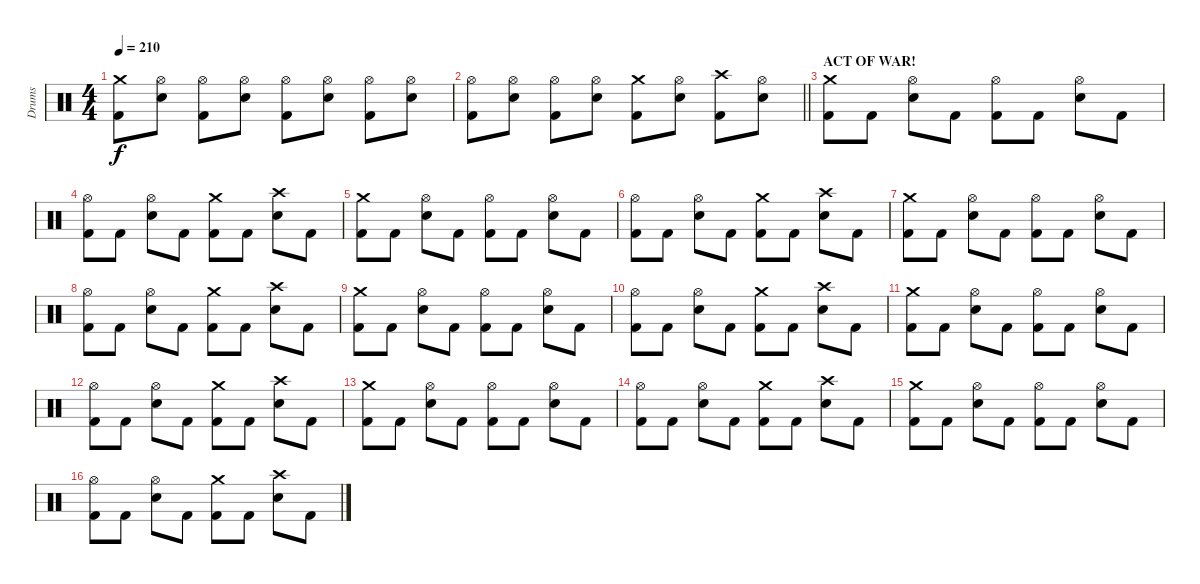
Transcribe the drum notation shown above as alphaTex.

\track ("Drums" "Drums") {instrument percussion}
\staff {score}
\articulation defaults
\ts (4 4)
\tempo 210
\clef neutral
\ks c
("Crash medium (hit)" "Kick (hit) 2").8{dy f} ("Hi-Hat (open)" "Electric Snare (hit)").8 ("Hi-Hat (open)" "Kick (hit) 2").8 ("Hi-Hat (open)" "Electric Snare (hit)").8 ("Hi-Hat (open)" "Kick (hit) 2").8 ("Hi-Hat (open)" "Electric Snare (hit)").8 ("Hi-Hat (open)" "Kick (hit) 2").8 ("Hi-Hat (open)" "Electric Snare (hit)").8 |
\barLineRight lightlight
("Hi-Hat (open)" "Kick (hit) 2").8 ("Hi-Hat (open)" "Electric Snare (hit)").8 ("Hi-Hat (open)" "Kick (hit) 2").8 ("Hi-Hat (open)" "Electric Snare (hit)").8 ("Crash medium (hit)" "Kick (hit) 2").8 ("Hi-Hat (open)" "Electric Snare (hit)").8 ("Crash high (hit)" "Kick (hit) 2").8 ("Hi-Hat (open)" "Electric Snare (hit)").8 |
\section ("" "ACT OF WAR!")
("Crash medium (hit)" "Kick (hit) 2").8 "Kick (hit) 2".8 ("Hi-Hat (open)" "Electric Snare (hit)").8 "Kick (hit) 2".8 ("Hi-Hat (open)" "Kick (hit) 2").8 "Kick (hit) 2".8 ("Hi-Hat (open)" "Electric Snare (hit)").8 "Kick (hit) 2".8 |
("Hi-Hat (open)" "Kick (hit) 2").8 "Kick (hit) 2".8 ("Hi-Hat (open)" "Electric Snare (hit)").8 "Kick (hit) 2".8 ("Crash medium (hit)" "Kick (hit) 2").8 "Kick (hit) 2".8 ("Crash high (hit)" "Electric Snare (hit)").8 "Kick (hit) 2".8 |
("Crash medium (hit)" "Kick (hit) 2").8 "Kick (hit) 2".8 ("Hi-Hat (open)" "Electric Snare (hit)").8 "Kick (hit) 2".8 ("Hi-Hat (open)" "Kick (hit) 2").8 "Kick (hit) 2".8 ("Hi-Hat (open)" "Electric Snare (hit)").8 "Kick (hit) 2".8 |
("Hi-Hat (open)" "Kick (hit) 2").8 "Kick (hit) 2".8 ("Hi-Hat (open)" "Electric Snare (hit)").8 "Kick (hit) 2".8 ("Crash medium (hit)" "Kick (hit) 2").8 "Kick (hit) 2".8 ("Crash high (hit)" "Electric Snare (hit)").8 "Kick (hit) 2".8 |
("Crash medium (hit)" "Kick (hit) 2").8 "Kick (hit) 2".8 ("Hi-Hat (open)" "Electric Snare (hit)").8 "Kick (hit) 2".8 ("Hi-Hat (open)" "Kick (hit) 2").8 "Kick (hit) 2".8 ("Hi-Hat (open)" "Electric Snare (hit)").8 "Kick (hit) 2".8 |
("Hi-Hat (open)" "Kick (hit) 2").8 "Kick (hit) 2".8 ("Hi-Hat (open)" "Electric Snare (hit)").8 "Kick (hit) 2".8 ("Crash medium (hit)" "Kick (hit) 2").8 "Kick (hit) 2".8 ("Crash high (hit)" "Electric Snare (hit)").8 "Kick (hit) 2".8 |
("Crash medium (hit)" "Kick (hit) 2").8 "Kick (hit) 2".8 ("Hi-Hat (open)" "Electric Snare (hit)").8 "Kick (hit) 2".8 ("Hi-Hat (open)" "Kick (hit) 2").8 "Kick (hit) 2".8 ("Hi-Hat (open)" "Electric Snare (hit)").8 "Kick (hit) 2".8 |
("Hi-Hat (open)" "Kick (hit) 2").8 "Kick (hit) 2".8 ("Hi-Hat (open)" "Electric Snare (hit)").8 "Kick (hit) 2".8 ("Crash medium (hit)" "Kick (hit) 2").8 "Kick (hit) 2".8 ("Crash high (hit)" "Electric Snare (hit)").8 "Kick (hit) 2".8 |
("Crash medium (hit)" "Kick (hit) 2").8 "Kick (hit) 2".8 ("Hi-Hat (open)" "Electric Snare (hit)").8 "Kick (hit) 2".8 ("Hi-Hat (open)" "Kick (hit) 2").8 "Kick (hit) 2".8 ("Hi-Hat (open)" "Electric Snare (hit)").8 "Kick (hit) 2".8 |
("Hi-Hat (open)" "Kick (hit) 2").8 "Kick (hit) 2".8 ("Hi-Hat (open)" "Electric Snare (hit)").8 "Kick (hit) 2".8 ("Crash medium (hit)" "Kick (hit) 2").8 "Kick (hit) 2".8 ("Crash high (hit)" "Electric Snare (hit)").8 "Kick (hit) 2".8 |
("Crash medium (hit)" "Kick (hit) 2").8 "Kick (hit) 2".8 ("Hi-Hat (open)" "Electric Snare (hit)").8 "Kick (hit) 2".8 ("Hi-Hat (open)" "Kick (hit) 2").8 "Kick (hit) 2".8 ("Hi-Hat (open)" "Electric Snare (hit)").8 "Kick (hit) 2".8 |
("Hi-Hat (open)" "Kick (hit) 2").8 "Kick (hit) 2".8 ("Hi-Hat (open)" "Electric Snare (hit)").8 "Kick (hit) 2".8 ("Crash medium (hit)" "Kick (hit) 2").8 "Kick (hit) 2".8 ("Crash high (hit)" "Electric Snare (hit)").8 "Kick (hit) 2".8 |
("Crash medium (hit)" "Kick (hit) 2").8 "Kick (hit) 2".8 ("Hi-Hat (open)" "Electric Snare (hit)").8 "Kick (hit) 2".8 ("Hi-Hat (open)" "Kick (hit) 2").8 "Kick (hit) 2".8 ("Hi-Hat (open)" "Electric Snare (hit)").8 "Kick (hit) 2".8 |
("Hi-Hat (open)" "Kick (hit) 2").8 "Kick (hit) 2".8 ("Hi-Hat (open)" "Electric Snare (hit)").8 "Kick (hit) 2".8 ("Crash medium (hit)" "Kick (hit) 2").8 "Kick (hit) 2".8 ("Crash high (hit)" "Electric Snare (hit)").8 "Kick (hit) 2".8
